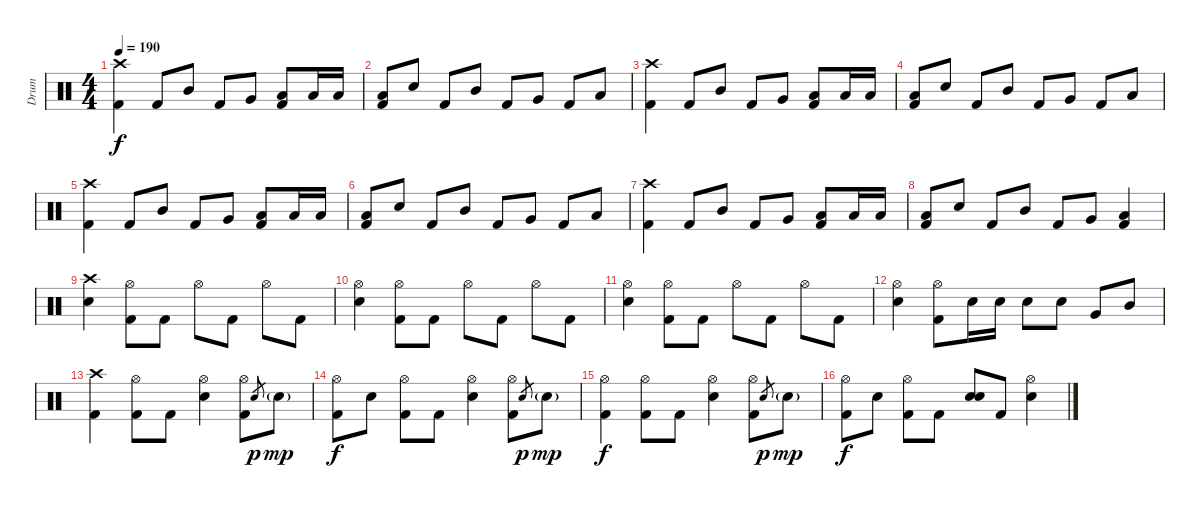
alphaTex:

\track ("Drum" "Drum") {instrument percussion}
\staff {score}
\articulation defaults
\ts (4 4)
\tempo 190
\clef neutral
\ks c
("Crash high (hit)" "Kick (hit) 2").4{dy f} "Kick (hit) 2".8 "Mid Tom (hit)".8 "Kick (hit) 2".8 "Very Low Tom (hit)".8 ("Low Floor Tom (hit)" "Kick (hit) 2").8 "Low Floor Tom (hit)".16 "Low Floor Tom (hit)".16 |
("Low Floor Tom (hit)" "Kick (hit) 2").8 "Electric Snare (hit)".8 "Kick (hit) 2".8 "Mid Tom (hit)".8 "Kick (hit) 2".8 "Very Low Tom (hit)".8 "Kick (hit) 2".8 "Low Floor Tom (hit)".8 |
("Crash high (hit)" "Kick (hit) 2").4 "Kick (hit) 2".8 "Mid Tom (hit)".8 "Kick (hit) 2".8 "Very Low Tom (hit)".8 ("Low Floor Tom (hit)" "Kick (hit) 2").8 "Low Floor Tom (hit)".16 "Low Floor Tom (hit)".16 |
("Low Floor Tom (hit)" "Kick (hit) 2").8 "Electric Snare (hit)".8 "Kick (hit) 2".8 "Mid Tom (hit)".8 "Kick (hit) 2".8 "Very Low Tom (hit)".8 "Kick (hit) 2".8 "Low Floor Tom (hit)".8 |
("Crash high (hit)" "Kick (hit) 2").4 "Kick (hit) 2".8 "Mid Tom (hit)".8 "Kick (hit) 2".8 "Very Low Tom (hit)".8 ("Low Floor Tom (hit)" "Kick (hit) 2").8 "Low Floor Tom (hit)".16 "Low Floor Tom (hit)".16 |
("Low Floor Tom (hit)" "Kick (hit) 2").8 "Electric Snare (hit)".8 "Kick (hit) 2".8 "Mid Tom (hit)".8 "Kick (hit) 2".8 "Very Low Tom (hit)".8 "Kick (hit) 2".8 "Low Floor Tom (hit)".8 |
("Crash high (hit)" "Kick (hit) 2").4 "Kick (hit) 2".8 "Mid Tom (hit)".8 "Kick (hit) 2".8 "Very Low Tom (hit)".8 ("Low Floor Tom (hit)" "Kick (hit) 2").8 "Low Floor Tom (hit)".16 "Low Floor Tom (hit)".16 |
("Low Floor Tom (hit)" "Kick (hit) 2").8 "Electric Snare (hit)".8 "Kick (hit) 2".8 "Mid Tom (hit)".8 "Kick (hit) 2".8 "Very Low Tom (hit)".8 ("Low Floor Tom (hit)" "Kick (hit) 2").4 |
("Crash high (hit)" "Electric Snare (hit)").4 ("Hi-Hat (open)" "Kick (hit) 2").8 "Kick (hit) 2".8 "Hi-Hat (open)".8 "Kick (hit) 2".8 "Hi-Hat (open)".8 "Kick (hit) 2".8 |
("Hi-Hat (open)" "Electric Snare (hit)").4 ("Hi-Hat (open)" "Kick (hit) 2").8 "Kick (hit) 2".8 "Hi-Hat (open)".8 "Kick (hit) 2".8 "Hi-Hat (open)".8 "Kick (hit) 2".8 |
("Hi-Hat (open)" "Electric Snare (hit)").4 ("Hi-Hat (open)" "Kick (hit) 2").8 "Kick (hit) 2".8 "Hi-Hat (open)".8 "Kick (hit) 2".8 "Hi-Hat (open)".8 "Kick (hit) 2".8 |
("Hi-Hat (open)" "Electric Snare (hit)").4 ("Hi-Hat (open)" "Kick (hit) 2").8 "Electric Snare (hit)".16 "Electric Snare (hit)".16 "Electric Snare (hit)".8 "Electric Snare (hit)".8 "Very Low Tom (hit)".8 "Mid Tom (hit)".8 |
("Crash high (hit)" "Kick (hit) 2").4 ("Hi-Hat (open)" "Kick (hit) 2").8 "Kick (hit) 2".8 ("Hi-Hat (open)" "Electric Snare (hit)").4 ("Hi-Hat (open)" "Kick (hit) 2").8 "Electric Snare (hit)".8{gr dy p} "Electric Snare (hit)"{g}.8{dy mp} |
("Hi-Hat (open)" "Kick (hit) 2").8{dy f} "Electric Snare (hit)".8 ("Hi-Hat (open)" "Kick (hit) 2").8 "Kick (hit) 2".8 ("Hi-Hat (open)" "Electric Snare (hit)").4 ("Hi-Hat (open)" "Kick (hit) 2").8 "Electric Snare (hit)".8{gr dy p} "Electric Snare (hit)"{g}.8{dy mp} |
("Hi-Hat (open)" "Kick (hit) 2").4{dy f} ("Hi-Hat (open)" "Kick (hit) 2").8 "Kick (hit) 2".8 ("Hi-Hat (open)" "Electric Snare (hit)").4 ("Hi-Hat (open)" "Kick (hit) 2").8 "Electric Snare (hit)".8{gr dy p} "Electric Snare (hit)"{g}.8{dy mp} |
("Hi-Hat (open)" "Kick (hit) 2").8{dy f} "Electric Snare (hit)".8 ("Hi-Hat (open)" "Kick (hit) 2").8 "Kick (hit) 2".8 ("Electric Snare (hit)" "Electric Snare (hit)").8 "Kick (hit) 2".8 ("Hi-Hat (open)" "Electric Snare (hit)").4
